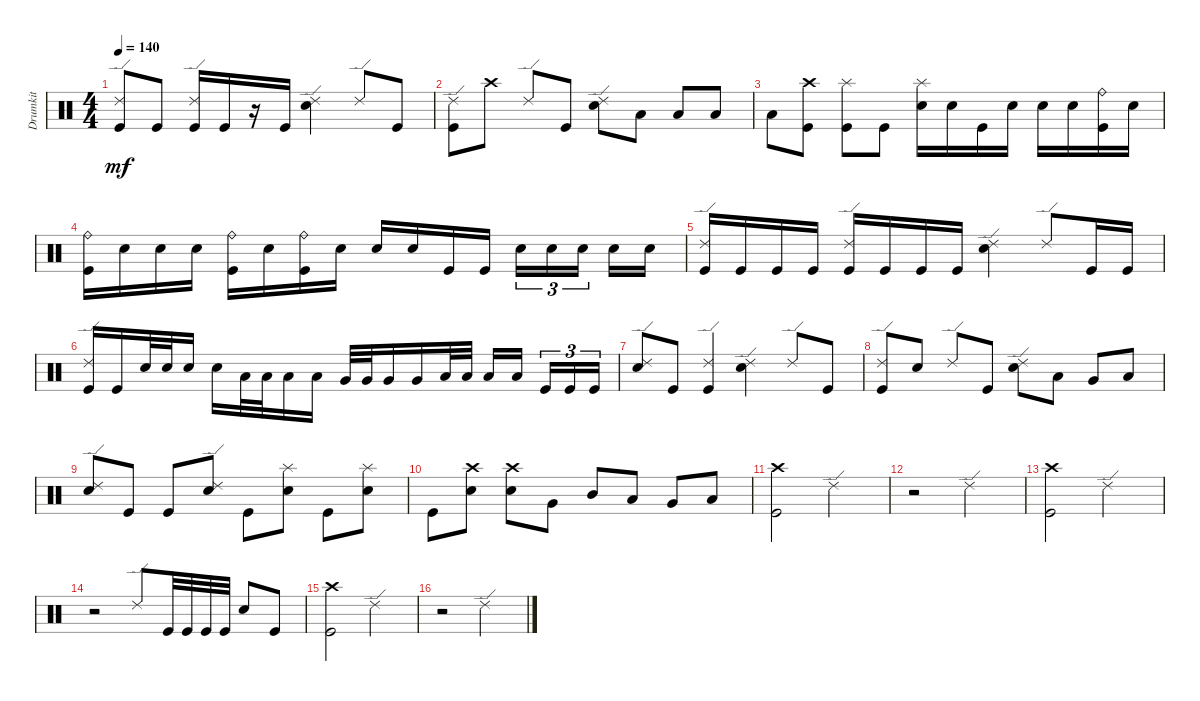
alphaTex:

\track ("Drumkit" "Drumkit") {instrument percussion}
\staff {score}
\articulation defaults
\ts (4 4)
\tempo 140
\clef neutral
\ks c
("Kick (hit)" "Ride (edge) 2").8{dy mf} "Kick (hit)".8 ("Kick (hit)" "Ride (edge) 2").16 "Kick (hit)".16 r.16 "Kick (hit)".16 ("Snare (hit) 2" "Ride (edge) 2").4 "Ride (edge) 2".8 "Kick (hit)".8 |
("Kick (hit)" "Ride (edge) 2").8 "Crash high (hit)".8 "Ride (edge) 2".8 "Kick (hit)".8 ("Snare (hit) 2" "Ride (edge) 2").8 "Low Floor Tom (hit)".8 "Low Floor Tom (hit)".8 "Low Floor Tom (hit)".8 |
"Low Floor Tom (hit)".8 ("Kick (hit)" "Crash high (hit)").8 ("Kick (hit)" "Splash (hit)").8 "Kick (hit)".8 ("Snare (hit) 2" "Splash (hit)").16 "Snare (hit) 2".16 "Kick (hit)".16 "Snare (hit) 2".16 "Snare (hit) 2".16 "Snare (hit) 2".16 ("Kick (hit)" "Ride (bell)").16 "Snare (hit) 2".16 |
("Kick (hit)" "Ride (bell)").16 "Snare (hit) 2".16 "Snare (hit) 2".16 "Snare (hit) 2".16 ("Kick (hit)" "Ride (bell)").16 "Snare (hit) 2".16 ("Kick (hit)" "Ride (bell)").16 "Snare (hit) 2".16 "Snare (hit) 2".16 "Snare (hit) 2".16 "Kick (hit)".16 "Kick (hit)".16 "Snare (hit) 2".16{tu (3 2)} "Snare (hit) 2".16{tu (3 2)} "Snare (hit) 2".16{tu (3 2)} "Snare (hit) 2".16 "Snare (hit) 2".16 |
("Kick (hit)" "Ride (edge) 2").16 "Kick (hit)".16 "Kick (hit)".16 "Kick (hit)".16 ("Kick (hit)" "Ride (edge) 2").16 "Kick (hit)".16 "Kick (hit)".16 "Kick (hit)".16 ("Snare (hit) 2" "Ride (edge) 2").4 "Ride (edge) 2".8 "Kick (hit)".16 "Kick (hit)".16 |
("Kick (hit)" "Ride (edge) 2").16 "Kick (hit)".16 "Snare (hit) 2".32 "Snare (hit) 2".32 "Snare (hit) 2".16 "Snare (hit) 2".16 "Low Tom (hit)".32 "Low Tom (hit)".32 "Low Tom (hit)".16 "Low Tom (hit)".16 "Very Low Tom (hit)".32 "Very Low Tom (hit)".32 "Very Low Tom (hit)".16 "Very Low Tom (hit)".16 "Low Floor Tom (hit)".32 "Low Floor Tom (hit)".32 "Low Floor Tom (hit)".16 "Low Floor Tom (hit)".16 "Kick (hit)".16{tu (3 2)} "Kick (hit)".16{tu (3 2)} "Kick (hit)".16{tu (3 2)} |
("Snare (hit) 2" "Ride (edge) 2").8 "Kick (hit)".8 ("Kick (hit)" "Ride (edge) 2").4 ("Snare (hit) 2" "Ride (edge) 2").4 "Ride (edge) 2".8 "Kick (hit)".8 |
("Kick (hit)" "Ride (edge) 2").8 "Snare (hit) 2".8 "Ride (edge) 2".8 "Kick (hit)".8 ("Snare (hit) 2" "Ride (edge) 2").8 "Low Tom (hit)".8 "Very Low Tom (hit)".8 "Low Floor Tom (hit)".8 |
("Snare (hit) 2" "Ride (edge) 2").8 "Kick (hit)".8 "Kick (hit)".8 ("Snare (hit) 2" "Ride (edge) 2").8 "Kick (hit)".8 ("Snare (hit) 2" "Splash (hit)").8 "Kick (hit)".8 ("Snare (hit) 2" "Splash (hit)").8 |
"Kick (hit)".8 ("Snare (hit) 2" "Crash high (hit)").8 ("Snare (hit) 2" "Crash high (hit)").8 "Very Low Tom (hit)".8 "Mid Tom (hit)".8 "Low Tom (hit)".8 "Very Low Tom (hit)".8 "Low Floor Tom (hit)".8 |
("Kick (hit)" "Crash high (hit)").2 "Ride (edge) 2".2 |
r.2 "Ride (edge) 2".2 |
("Kick (hit)" "Crash high (hit)").2 "Ride (edge) 2".2 |
r.2 "Ride (edge) 2".8 "Kick (hit)".32 "Kick (hit)".32 "Kick (hit)".32 "Kick (hit)".32 "Snare (hit) 2".8 "Kick (hit)".8 |
("Kick (hit)" "Crash high (hit)").2 "Ride (edge) 2".2 |
r.2 "Ride (edge) 2".2
